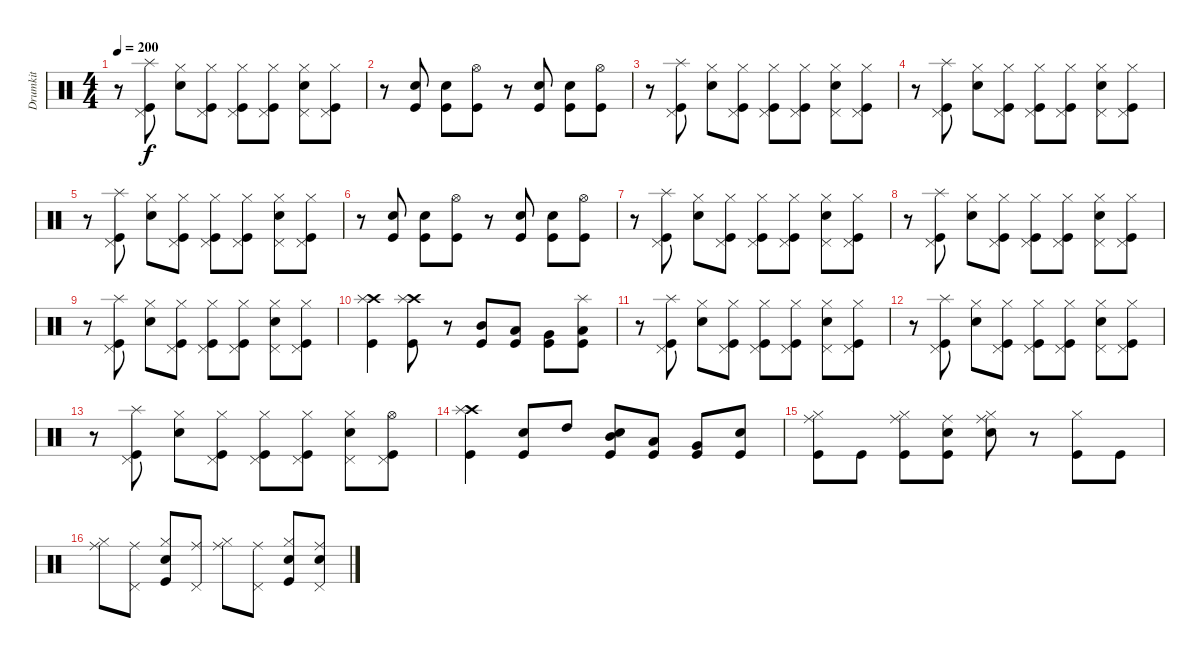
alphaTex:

\track ("Drumkit" "Drumkit") {instrument percussion}
\staff {score}
\articulation defaults
\ts (4 4)
\tempo 200
\clef neutral
\ks c
r.8{dy f} ("Splash (hit)" "Pedal Hi-Hat (hit)" "Kick (hit)").8 ("Hi-Hat (closed)" "Snare (hit) 2").8 ("Pedal Hi-Hat (hit)" "Hi-Hat (closed)" "Kick (hit)").8 ("Pedal Hi-Hat (hit)" "Hi-Hat (closed)" "Kick (hit)").8 ("Pedal Hi-Hat (hit)" "Hi-Hat (closed)" "Kick (hit)").8 ("Pedal Hi-Hat (hit)" "Hi-Hat (closed)" "Snare (hit) 2").8 ("Pedal Hi-Hat (hit)" "Hi-Hat (closed)" "Kick (hit)").8 |
r.8 ("Snare (hit) 2" "Kick (hit)").8 ("Snare (hit) 2" "Kick (hit)").8 ("Hi-Hat (open)" "Kick (hit)").8 r.8 ("Snare (hit) 2" "Kick (hit)").8 ("Snare (hit) 2" "Kick (hit)").8 ("Hi-Hat (open)" "Kick (hit)").8 |
r.8 ("Splash (hit)" "Pedal Hi-Hat (hit)" "Kick (hit)").8 ("Hi-Hat (closed)" "Snare (hit) 2").8 ("Pedal Hi-Hat (hit)" "Hi-Hat (closed)" "Kick (hit)").8 ("Pedal Hi-Hat (hit)" "Hi-Hat (closed)" "Kick (hit)").8 ("Pedal Hi-Hat (hit)" "Hi-Hat (closed)" "Kick (hit)").8 ("Pedal Hi-Hat (hit)" "Hi-Hat (closed)" "Snare (hit) 2").8 ("Pedal Hi-Hat (hit)" "Hi-Hat (closed)" "Kick (hit)").8 |
r.8 ("Splash (hit)" "Pedal Hi-Hat (hit)" "Kick (hit)").8 ("Hi-Hat (closed)" "Snare (hit) 2").8 ("Pedal Hi-Hat (hit)" "Hi-Hat (closed)" "Kick (hit)").8 ("Pedal Hi-Hat (hit)" "Hi-Hat (closed)" "Kick (hit)").8 ("Pedal Hi-Hat (hit)" "Hi-Hat (closed)" "Kick (hit)").8 ("Pedal Hi-Hat (hit)" "Hi-Hat (closed)" "Snare (hit) 2").8 ("Pedal Hi-Hat (hit)" "Hi-Hat (closed)" "Kick (hit)").8 |
r.8 ("Splash (hit)" "Pedal Hi-Hat (hit)" "Kick (hit)").8 ("Hi-Hat (closed)" "Snare (hit) 2").8 ("Pedal Hi-Hat (hit)" "Hi-Hat (closed)" "Kick (hit)").8 ("Pedal Hi-Hat (hit)" "Hi-Hat (closed)" "Kick (hit)").8 ("Pedal Hi-Hat (hit)" "Hi-Hat (closed)" "Kick (hit)").8 ("Pedal Hi-Hat (hit)" "Hi-Hat (closed)" "Snare (hit) 2").8 ("Pedal Hi-Hat (hit)" "Hi-Hat (closed)" "Kick (hit)").8 |
r.8 ("Snare (hit) 2" "Kick (hit)").8 ("Snare (hit) 2" "Kick (hit)").8 ("Hi-Hat (open)" "Kick (hit)").8 r.8 ("Snare (hit) 2" "Kick (hit)").8 ("Snare (hit) 2" "Kick (hit)").8 ("Hi-Hat (open)" "Kick (hit)").8 |
r.8 ("Splash (hit)" "Pedal Hi-Hat (hit)" "Kick (hit)").8 ("Hi-Hat (closed)" "Snare (hit) 2").8 ("Pedal Hi-Hat (hit)" "Hi-Hat (closed)" "Kick (hit)").8 ("Pedal Hi-Hat (hit)" "Hi-Hat (closed)" "Kick (hit)").8 ("Pedal Hi-Hat (hit)" "Hi-Hat (closed)" "Kick (hit)").8 ("Pedal Hi-Hat (hit)" "Hi-Hat (closed)" "Snare (hit) 2").8 ("Pedal Hi-Hat (hit)" "Hi-Hat (closed)" "Kick (hit)").8 |
r.8 ("Splash (hit)" "Pedal Hi-Hat (hit)" "Kick (hit)").8 ("Hi-Hat (closed)" "Snare (hit) 2").8 ("Pedal Hi-Hat (hit)" "Hi-Hat (closed)" "Kick (hit)").8 ("Pedal Hi-Hat (hit)" "Hi-Hat (closed)" "Kick (hit)").8 ("Pedal Hi-Hat (hit)" "Hi-Hat (closed)" "Kick (hit)").8 ("Pedal Hi-Hat (hit)" "Hi-Hat (closed)" "Snare (hit) 2").8 ("Pedal Hi-Hat (hit)" "Hi-Hat (closed)" "Kick (hit)").8 |
r.8 ("Splash (hit)" "Pedal Hi-Hat (hit)" "Kick (hit)").8 ("Hi-Hat (closed)" "Snare (hit) 2").8 ("Pedal Hi-Hat (hit)" "Hi-Hat (closed)" "Kick (hit)").8 ("Pedal Hi-Hat (hit)" "Hi-Hat (closed)" "Kick (hit)").8 ("Pedal Hi-Hat (hit)" "Hi-Hat (closed)" "Kick (hit)").8 ("Pedal Hi-Hat (hit)" "Hi-Hat (closed)" "Snare (hit) 2").8 ("Pedal Hi-Hat (hit)" "Hi-Hat (closed)" "Kick (hit)").8 |
("Crash high (hit)" "Splash (hit)" "Kick (hit)").4 ("Crash high (hit)" "Splash (hit)" "Kick (hit)").8 r.8 ("Mid Tom (hit)" "Kick (hit)").8 ("Low Tom (hit)" "Kick (hit)").8 ("Very Low Tom (hit)" "Kick (hit)").8 ("Splash (hit)" "Low Floor Tom (hit)" "Kick (hit)").8 |
r.8 ("Splash (hit)" "Pedal Hi-Hat (hit)" "Kick (hit)").8 ("Hi-Hat (closed)" "Snare (hit) 2").8 ("Pedal Hi-Hat (hit)" "Hi-Hat (closed)" "Kick (hit)").8 ("Pedal Hi-Hat (hit)" "Hi-Hat (closed)" "Kick (hit)").8 ("Pedal Hi-Hat (hit)" "Hi-Hat (closed)" "Kick (hit)").8 ("Pedal Hi-Hat (hit)" "Hi-Hat (closed)" "Snare (hit) 2").8 ("Pedal Hi-Hat (hit)" "Hi-Hat (closed)" "Kick (hit)").8 |
r.8 ("Splash (hit)" "Pedal Hi-Hat (hit)" "Kick (hit)").8 ("Hi-Hat (closed)" "Snare (hit) 2").8 ("Pedal Hi-Hat (hit)" "Hi-Hat (closed)" "Kick (hit)").8 ("Pedal Hi-Hat (hit)" "Hi-Hat (closed)" "Kick (hit)").8 ("Pedal Hi-Hat (hit)" "Hi-Hat (closed)" "Kick (hit)").8 ("Pedal Hi-Hat (hit)" "Hi-Hat (closed)" "Snare (hit) 2").8 ("Pedal Hi-Hat (hit)" "Hi-Hat (closed)" "Kick (hit)").8 |
r.8 ("Splash (hit)" "Pedal Hi-Hat (hit)" "Kick (hit)").8 ("Hi-Hat (closed)" "Snare (hit) 2").8 ("Pedal Hi-Hat (hit)" "Hi-Hat (closed)" "Kick (hit)").8 ("Pedal Hi-Hat (hit)" "Hi-Hat (closed)" "Kick (hit)").8 ("Pedal Hi-Hat (hit)" "Hi-Hat (closed)" "Kick (hit)").8 ("Pedal Hi-Hat (hit)" "Hi-Hat (closed)" "Snare (hit) 2").8 ("Hi-Hat (open)" "Pedal Hi-Hat (hit)" "Kick (hit)").8 |
("Crash high (hit)" "Splash (hit)" "Kick (hit)").4 ("Snare (hit) 2" "Kick (hit)").8 "High Tom (hit)".8 ("Mid Tom (hit)" "Snare (hit) 2" "Kick (hit)").8 ("Low Tom (hit)" "Kick (hit)").8 ("Very Low Tom (hit)" "Kick (hit)").8 ("Snare (hit) 2" "Kick (hit)").8 |
("Ride (middle)" "Hi-Hat (closed)" "Kick (hit)").8 "Kick (hit)".8 ("Ride (middle)" "Hi-Hat (closed)" "Kick (hit)").8 ("Ride (middle)" "Snare (hit) 2" "Kick (hit)").8 ("Ride (middle)" "Hi-Hat (closed)" "Snare (hit) 2").8 r.8 ("Hi-Hat (closed)" "Kick (hit)").8 "Kick (hit)".8 |
("Ride (middle)" "Hi-Hat (closed)").8 ("Ride (middle)" "Pedal Hi-Hat (hit)").8 ("Hi-Hat (closed)" "Snare (hit) 2" "Kick (hit)").8 ("Ride (middle)" "Pedal Hi-Hat (hit)").8 ("Ride (middle)" "Hi-Hat (closed)").8 ("Ride (middle)" "Pedal Hi-Hat (hit)").8 ("Hi-Hat (closed)" "Snare (hit) 2" "Kick (hit)").8 ("Ride (middle)" "Pedal Hi-Hat (hit)" "Snare (hit) 2").8
